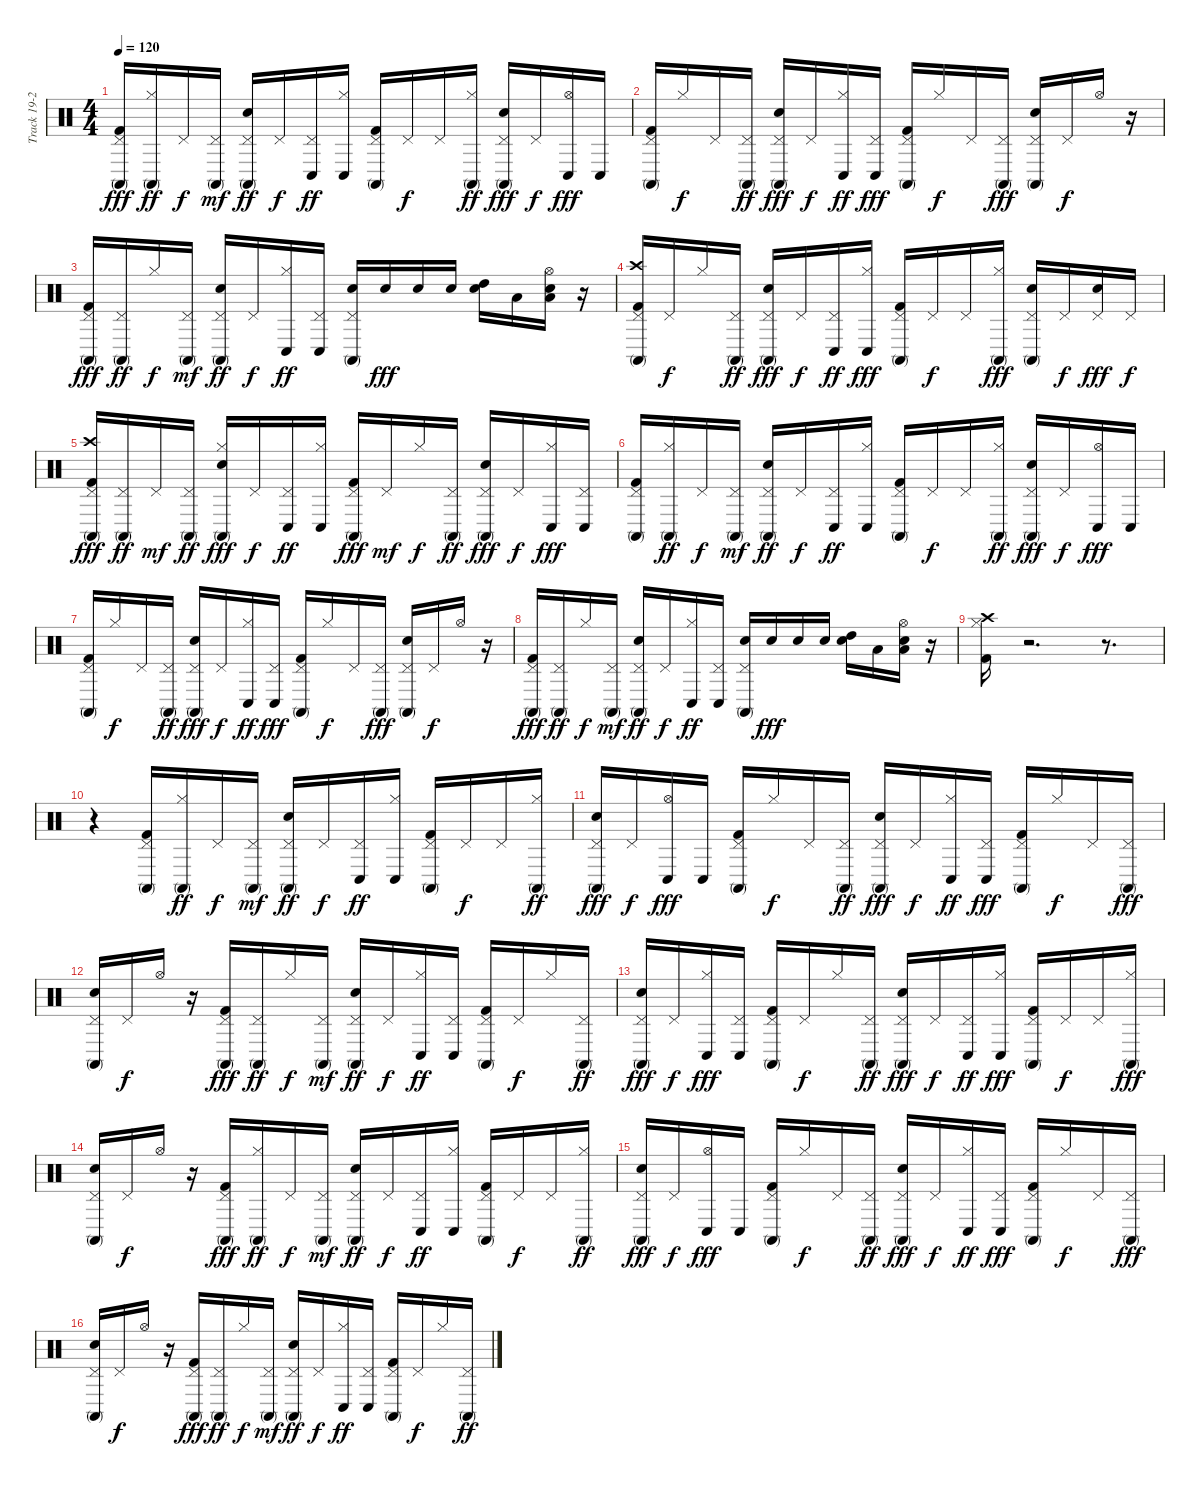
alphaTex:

\track ("Track 19-20-21" "Track 19-2") {instrument percussion}
\staff {score}
\articulation defaults
\ts (4 4)
\tempo 120
\clef neutral
\ks c
("Conga high (mute)" "Kick (hit) 2" "Pedal Hi-Hat (hit)").16{dy fff} ("Hi-Hat (closed)" "Conga high (mute)").16{dy ff} "Pedal Hi-Hat (hit)".16{dy f} ("Conga high (mute)" "Pedal Hi-Hat (hit)").16{dy mf} ("Conga high (mute)" "Snare (hit) 2" "Pedal Hi-Hat (hit)").16{dy ff} "Pedal Hi-Hat (hit)".16{dy f} ("Conga low (hit)" "Pedal Hi-Hat (hit)").16{dy ff} ("Hi-Hat (closed)" "Conga low (hit)").16 ("Conga high (mute)" "Kick (hit) 2" "Pedal Hi-Hat (hit)").16 "Pedal Hi-Hat (hit)".16{dy f} "Pedal Hi-Hat (hit)".16 ("Hi-Hat (closed)" "Conga high (mute)").16{dy ff} ("Conga high (mute)" "Snare (hit) 2" "Pedal Hi-Hat (hit)").16{dy fff} "Pedal Hi-Hat (hit)".16{dy f} ("Hi-Hat (open)" "Conga low (hit)").16{dy fff} "Conga low (hit)".16 |
("Pedal Hi-Hat (hit)" "Conga high (mute)" "Kick (hit) 2").16 "Hi-Hat (closed)".16{dy f} "Pedal Hi-Hat (hit)".16 ("Pedal Hi-Hat (hit)" "Conga high (mute)").16{dy ff} ("Pedal Hi-Hat (hit)" "Conga high (mute)" "Snare (hit) 2").16{dy fff} "Pedal Hi-Hat (hit)".16{dy f} ("Hi-Hat (closed)" "Conga low (hit)").16{dy ff} ("Pedal Hi-Hat (hit)" "Conga low (hit)").16{dy fff} ("Pedal Hi-Hat (hit)" "Conga high (mute)" "Kick (hit) 2").16 "Hi-Hat (closed)".16{dy f} "Pedal Hi-Hat (hit)".16 ("Pedal Hi-Hat (hit)" "Conga high (mute)").16{dy fff} ("Pedal Hi-Hat (hit)" "Conga high (mute)" "Snare (hit) 2").16 "Pedal Hi-Hat (hit)".16{dy f} "Hi-Hat (open)".16 r.16 |
("Conga high (mute)" "Kick (hit) 2" "Pedal Hi-Hat (hit)").16{dy fff} ("Pedal Hi-Hat (hit)" "Conga high (mute)").16{dy ff} "Hi-Hat (closed)".16{dy f} ("Conga high (mute)" "Pedal Hi-Hat (hit)").16{dy mf} ("Conga high (mute)" "Snare (hit) 2" "Pedal Hi-Hat (hit)").16{dy ff} "Pedal Hi-Hat (hit)".16{dy f} ("Hi-Hat (closed)" "Conga low (hit)").16{dy ff} ("Pedal Hi-Hat (hit)" "Conga low (hit)").16 ("Conga high (mute)" "Snare (hit) 2" "Pedal Hi-Hat (hit)").16 "Snare (hit) 2".16{dy fff} "Snare (hit) 2".16 "Snare (hit) 2".16 ("High Tom (hit)" "Snare (hit) 2").16 "Low Tom (hit)".16 ("Hi-Hat (open)" "Snare (hit) 2" "Low Floor Tom (hit)").16 r.16 |
("Pedal Hi-Hat (hit)" "Crash high (hit)" "Conga high (mute)" "Kick (hit) 2").16 "Pedal Hi-Hat (hit)".16{dy f} "Hi-Hat (closed)".16 ("Pedal Hi-Hat (hit)" "Conga high (mute)").16{dy ff} ("Pedal Hi-Hat (hit)" "Conga high (mute)" "Snare (hit) 2").16{dy fff} "Pedal Hi-Hat (hit)".16{dy f} ("Pedal Hi-Hat (hit)" "Conga low (hit)").16{dy ff} ("Hi-Hat (closed)" "Conga low (hit)").16{dy fff} ("Pedal Hi-Hat (hit)" "Conga high (mute)" "Kick (hit) 2").16 "Pedal Hi-Hat (hit)".16{dy f} "Pedal Hi-Hat (hit)".16 ("Hi-Hat (closed)" "Conga high (mute)").16{dy fff} ("Pedal Hi-Hat (hit)" "Conga high (mute)" "Snare (hit) 2").16 "Pedal Hi-Hat (hit)".16{dy f} ("Pedal Hi-Hat (hit)" "Snare (hit) 2").16{dy fff} "Pedal Hi-Hat (hit)".16{dy f} |
("Pedal Hi-Hat (hit)" "Crash high (hit)" "Conga high (mute)" "Kick (hit) 2").16{dy fff} ("Pedal Hi-Hat (hit)" "Conga high (mute)").16{dy ff} "Pedal Hi-Hat (hit)".16{dy mf} ("Pedal Hi-Hat (hit)" "Conga high (mute)").16{dy ff} ("Hi-Hat (closed)" "Conga high (mute)" "Snare (hit) 2").16{dy fff} "Pedal Hi-Hat (hit)".16{dy f} ("Pedal Hi-Hat (hit)" "Conga low (hit)").16{dy ff} ("Hi-Hat (closed)" "Conga low (hit)").16 ("Pedal Hi-Hat (hit)" "Conga high (mute)" "Kick (hit) 2").16{dy fff} "Pedal Hi-Hat (hit)".16{dy mf} "Hi-Hat (closed)".16{dy f} ("Pedal Hi-Hat (hit)" "Conga high (mute)").16{dy ff} ("Pedal Hi-Hat (hit)" "Conga high (mute)" "Snare (hit) 2").16{dy fff} "Pedal Hi-Hat (hit)".16{dy f} ("Hi-Hat (closed)" "Conga low (hit)").16{dy fff} ("Pedal Hi-Hat (hit)" "Conga low (hit)").16 |
("Conga high (mute)" "Kick (hit) 2" "Pedal Hi-Hat (hit)").16 ("Hi-Hat (closed)" "Conga high (mute)").16{dy ff} "Pedal Hi-Hat (hit)".16{dy f} ("Conga high (mute)" "Pedal Hi-Hat (hit)").16{dy mf} ("Conga high (mute)" "Snare (hit) 2" "Pedal Hi-Hat (hit)").16{dy ff} "Pedal Hi-Hat (hit)".16{dy f} ("Conga low (hit)" "Pedal Hi-Hat (hit)").16{dy ff} ("Hi-Hat (closed)" "Conga low (hit)").16 ("Conga high (mute)" "Kick (hit) 2" "Pedal Hi-Hat (hit)").16 "Pedal Hi-Hat (hit)".16{dy f} "Pedal Hi-Hat (hit)".16 ("Hi-Hat (closed)" "Conga high (mute)").16{dy ff} ("Conga high (mute)" "Snare (hit) 2" "Pedal Hi-Hat (hit)").16{dy fff} "Pedal Hi-Hat (hit)".16{dy f} ("Hi-Hat (open)" "Conga low (hit)").16{dy fff} "Conga low (hit)".16 |
("Pedal Hi-Hat (hit)" "Conga high (mute)" "Kick (hit) 2").16 "Hi-Hat (closed)".16{dy f} "Pedal Hi-Hat (hit)".16 ("Pedal Hi-Hat (hit)" "Conga high (mute)").16{dy ff} ("Pedal Hi-Hat (hit)" "Conga high (mute)" "Snare (hit) 2").16{dy fff} "Pedal Hi-Hat (hit)".16{dy f} ("Hi-Hat (closed)" "Conga low (hit)").16{dy ff} ("Pedal Hi-Hat (hit)" "Conga low (hit)").16{dy fff} ("Pedal Hi-Hat (hit)" "Conga high (mute)" "Kick (hit) 2").16 "Hi-Hat (closed)".16{dy f} "Pedal Hi-Hat (hit)".16 ("Pedal Hi-Hat (hit)" "Conga high (mute)").16{dy fff} ("Pedal Hi-Hat (hit)" "Conga high (mute)" "Snare (hit) 2").16 "Pedal Hi-Hat (hit)".16{dy f} "Hi-Hat (open)".16 r.16 |
("Conga high (mute)" "Kick (hit) 2" "Pedal Hi-Hat (hit)").16{dy fff} ("Pedal Hi-Hat (hit)" "Conga high (mute)").16{dy ff} "Hi-Hat (closed)".16{dy f} ("Conga high (mute)" "Pedal Hi-Hat (hit)").16{dy mf} ("Conga high (mute)" "Snare (hit) 2" "Pedal Hi-Hat (hit)").16{dy ff} "Pedal Hi-Hat (hit)".16{dy f} ("Hi-Hat (closed)" "Conga low (hit)").16{dy ff} ("Pedal Hi-Hat (hit)" "Conga low (hit)").16 ("Conga high (mute)" "Snare (hit) 2" "Pedal Hi-Hat (hit)").16 "Snare (hit) 2".16{dy fff} "Snare (hit) 2".16 "Snare (hit) 2".16 ("High Tom (hit)" "Snare (hit) 2").16 "Low Tom (hit)".16 ("Hi-Hat (open)" "Snare (hit) 2" "Low Floor Tom (hit)").16 r.16 |
("Crash high (hit)" "Hi-Hat (closed)" "Kick (hit) 2").16 r.2{d} r.8{d} |
r.4 ("Conga high (mute)" "Kick (hit) 2" "Pedal Hi-Hat (hit)").16 ("Hi-Hat (closed)" "Conga high (mute)").16{dy ff} "Pedal Hi-Hat (hit)".16{dy f} ("Conga high (mute)" "Pedal Hi-Hat (hit)").16{dy mf} ("Conga high (mute)" "Snare (hit) 2" "Pedal Hi-Hat (hit)").16{dy ff} "Pedal Hi-Hat (hit)".16{dy f} ("Conga low (hit)" "Pedal Hi-Hat (hit)").16{dy ff} ("Hi-Hat (closed)" "Conga low (hit)").16 ("Conga high (mute)" "Kick (hit) 2" "Pedal Hi-Hat (hit)").16 "Pedal Hi-Hat (hit)".16{dy f} "Pedal Hi-Hat (hit)".16 ("Hi-Hat (closed)" "Conga high (mute)").16{dy ff} |
("Conga high (mute)" "Snare (hit) 2" "Pedal Hi-Hat (hit)").16{dy fff} "Pedal Hi-Hat (hit)".16{dy f} ("Hi-Hat (open)" "Conga low (hit)").16{dy fff} "Conga low (hit)".16 ("Pedal Hi-Hat (hit)" "Conga high (mute)" "Kick (hit) 2").16 "Hi-Hat (closed)".16{dy f} "Pedal Hi-Hat (hit)".16 ("Pedal Hi-Hat (hit)" "Conga high (mute)").16{dy ff} ("Pedal Hi-Hat (hit)" "Conga high (mute)" "Snare (hit) 2").16{dy fff} "Pedal Hi-Hat (hit)".16{dy f} ("Hi-Hat (closed)" "Conga low (hit)").16{dy ff} ("Pedal Hi-Hat (hit)" "Conga low (hit)").16{dy fff} ("Pedal Hi-Hat (hit)" "Conga high (mute)" "Kick (hit) 2").16 "Hi-Hat (closed)".16{dy f} "Pedal Hi-Hat (hit)".16 ("Pedal Hi-Hat (hit)" "Conga high (mute)").16{dy fff} |
("Pedal Hi-Hat (hit)" "Conga high (mute)" "Snare (hit) 2").16 "Pedal Hi-Hat (hit)".16{dy f} "Hi-Hat (open)".16 r.16 ("Conga high (mute)" "Kick (hit) 2" "Pedal Hi-Hat (hit)").16{dy fff} ("Pedal Hi-Hat (hit)" "Conga high (mute)").16{dy ff} "Hi-Hat (closed)".16{dy f} ("Conga high (mute)" "Pedal Hi-Hat (hit)").16{dy mf} ("Conga high (mute)" "Snare (hit) 2" "Pedal Hi-Hat (hit)").16{dy ff} "Pedal Hi-Hat (hit)".16{dy f} ("Hi-Hat (closed)" "Conga low (hit)").16{dy ff} ("Pedal Hi-Hat (hit)" "Conga low (hit)").16 ("Conga high (mute)" "Kick (hit) 2" "Pedal Hi-Hat (hit)").16 "Pedal Hi-Hat (hit)".16{dy f} "Hi-Hat (closed)".16 ("Pedal Hi-Hat (hit)" "Conga high (mute)").16{dy ff} |
("Conga high (mute)" "Snare (hit) 2" "Pedal Hi-Hat (hit)").16{dy fff} "Pedal Hi-Hat (hit)".16{dy f} ("Hi-Hat (closed)" "Conga low (hit)").16{dy fff} ("Pedal Hi-Hat (hit)" "Conga low (hit)").16 ("Pedal Hi-Hat (hit)" "Conga high (mute)" "Kick (hit) 2").16 "Pedal Hi-Hat (hit)".16{dy f} "Hi-Hat (closed)".16 ("Pedal Hi-Hat (hit)" "Conga high (mute)").16{dy ff} ("Pedal Hi-Hat (hit)" "Conga high (mute)" "Snare (hit) 2").16{dy fff} "Pedal Hi-Hat (hit)".16{dy f} ("Pedal Hi-Hat (hit)" "Conga low (hit)").16{dy ff} ("Hi-Hat (closed)" "Conga low (hit)").16{dy fff} ("Pedal Hi-Hat (hit)" "Conga high (mute)" "Kick (hit) 2").16 "Pedal Hi-Hat (hit)".16{dy f} "Pedal Hi-Hat (hit)".16 ("Hi-Hat (closed)" "Conga high (mute)").16{dy fff} |
("Pedal Hi-Hat (hit)" "Conga high (mute)" "Snare (hit) 2").16 "Pedal Hi-Hat (hit)".16{dy f} "Hi-Hat (open)".16 r.16 ("Conga high (mute)" "Kick (hit) 2" "Pedal Hi-Hat (hit)").16{dy fff} ("Hi-Hat (closed)" "Conga high (mute)").16{dy ff} "Pedal Hi-Hat (hit)".16{dy f} ("Conga high (mute)" "Pedal Hi-Hat (hit)").16{dy mf} ("Conga high (mute)" "Snare (hit) 2" "Pedal Hi-Hat (hit)").16{dy ff} "Pedal Hi-Hat (hit)".16{dy f} ("Conga low (hit)" "Pedal Hi-Hat (hit)").16{dy ff} ("Hi-Hat (closed)" "Conga low (hit)").16 ("Conga high (mute)" "Kick (hit) 2" "Pedal Hi-Hat (hit)").16 "Pedal Hi-Hat (hit)".16{dy f} "Pedal Hi-Hat (hit)".16 ("Hi-Hat (closed)" "Conga high (mute)").16{dy ff} |
("Conga high (mute)" "Snare (hit) 2" "Pedal Hi-Hat (hit)").16{dy fff} "Pedal Hi-Hat (hit)".16{dy f} ("Hi-Hat (open)" "Conga low (hit)").16{dy fff} "Conga low (hit)".16 ("Pedal Hi-Hat (hit)" "Conga high (mute)" "Kick (hit) 2").16 "Hi-Hat (closed)".16{dy f} "Pedal Hi-Hat (hit)".16 ("Pedal Hi-Hat (hit)" "Conga high (mute)").16{dy ff} ("Pedal Hi-Hat (hit)" "Conga high (mute)" "Snare (hit) 2").16{dy fff} "Pedal Hi-Hat (hit)".16{dy f} ("Hi-Hat (closed)" "Conga low (hit)").16{dy ff} ("Pedal Hi-Hat (hit)" "Conga low (hit)").16{dy fff} ("Pedal Hi-Hat (hit)" "Conga high (mute)" "Kick (hit) 2").16 "Hi-Hat (closed)".16{dy f} "Pedal Hi-Hat (hit)".16 ("Pedal Hi-Hat (hit)" "Conga high (mute)").16{dy fff} |
("Pedal Hi-Hat (hit)" "Conga high (mute)" "Snare (hit) 2").16 "Pedal Hi-Hat (hit)".16{dy f} "Hi-Hat (open)".16 r.16 ("Conga high (mute)" "Kick (hit) 2" "Pedal Hi-Hat (hit)").16{dy fff} ("Pedal Hi-Hat (hit)" "Conga high (mute)").16{dy ff} "Hi-Hat (closed)".16{dy f} ("Conga high (mute)" "Pedal Hi-Hat (hit)").16{dy mf} ("Conga high (mute)" "Snare (hit) 2" "Pedal Hi-Hat (hit)").16{dy ff} "Pedal Hi-Hat (hit)".16{dy f} ("Hi-Hat (closed)" "Conga low (hit)").16{dy ff} ("Pedal Hi-Hat (hit)" "Conga low (hit)").16 ("Conga high (mute)" "Kick (hit) 2" "Pedal Hi-Hat (hit)").16 "Pedal Hi-Hat (hit)".16{dy f} "Hi-Hat (closed)".16 ("Pedal Hi-Hat (hit)" "Conga high (mute)").16{dy ff}
